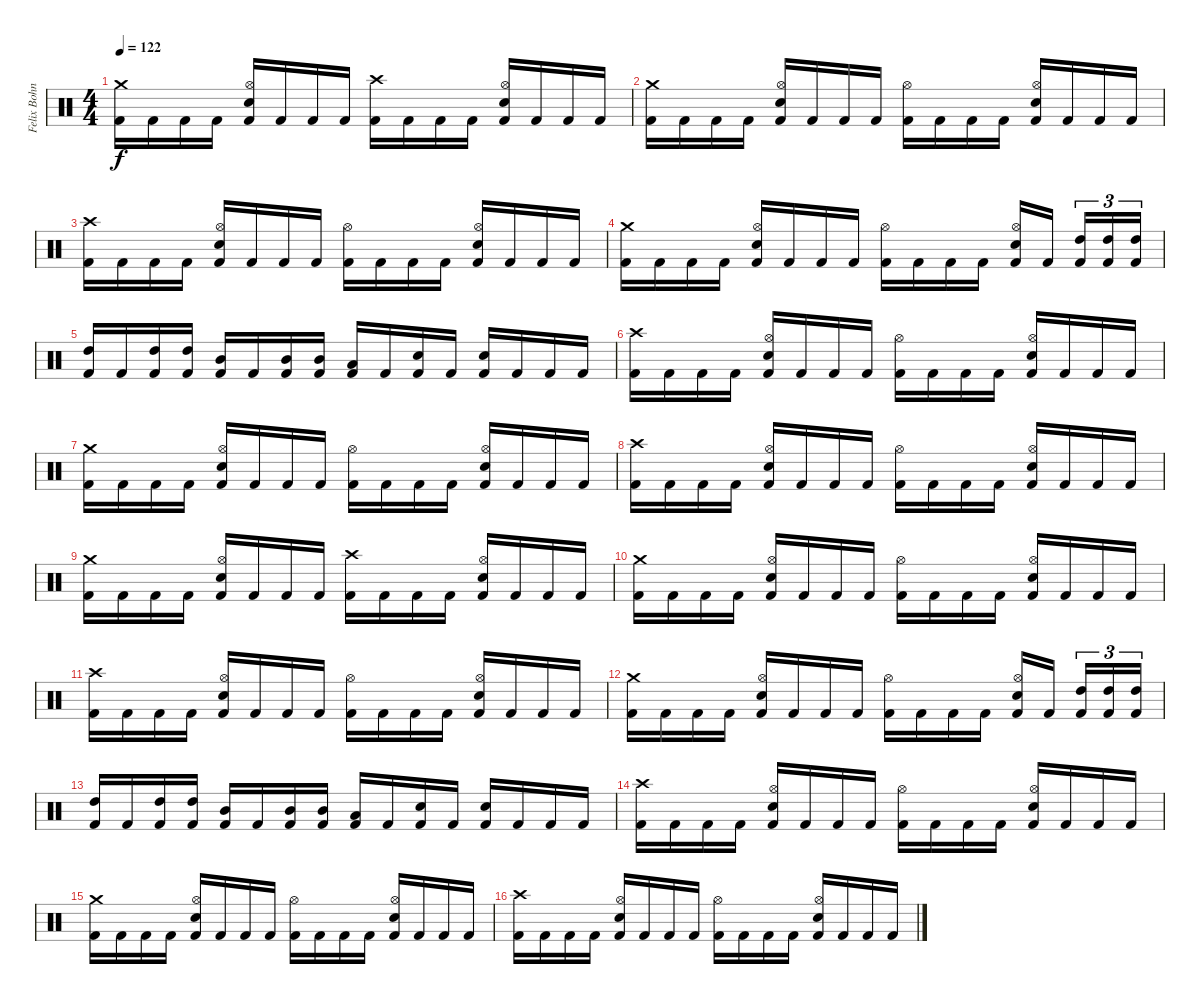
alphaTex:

\track ("Felix Bohnke" "Felix Bohn") {instrument percussion}
\staff {score}
\articulation defaults
\ts (4 4)
\tempo 122
\clef neutral
\ks c
("Crash medium (hit)" "Kick (hit) 2").16{dy f} "Kick (hit) 2".16 "Kick (hit) 2".16 "Kick (hit) 2".16 ("Hi-Hat (open)" "Snare (hit) 2" "Kick (hit) 2").16 "Kick (hit) 2".16 "Kick (hit) 2".16 "Kick (hit) 2".16 ("Crash high (hit)" "Kick (hit) 2").16 "Kick (hit) 2".16 "Kick (hit) 2".16 "Kick (hit) 2".16 ("Hi-Hat (open)" "Snare (hit) 2" "Kick (hit) 2").16 "Kick (hit) 2".16 "Kick (hit) 2".16 "Kick (hit) 2".16 |
("Crash medium (hit)" "Kick (hit) 2").16 "Kick (hit) 2".16 "Kick (hit) 2".16 "Kick (hit) 2".16 ("Hi-Hat (open)" "Snare (hit) 2" "Kick (hit) 2").16 "Kick (hit) 2".16 "Kick (hit) 2".16 "Kick (hit) 2".16 ("Hi-Hat (open)" "Kick (hit) 2").16 "Kick (hit) 2".16 "Kick (hit) 2".16 "Kick (hit) 2".16 ("Hi-Hat (open)" "Snare (hit) 2" "Kick (hit) 2").16 "Kick (hit) 2".16 "Kick (hit) 2".16 "Kick (hit) 2".16 |
("Crash high (hit)" "Kick (hit) 2").16 "Kick (hit) 2".16 "Kick (hit) 2".16 "Kick (hit) 2".16 ("Hi-Hat (open)" "Snare (hit) 2" "Kick (hit) 2").16 "Kick (hit) 2".16 "Kick (hit) 2".16 "Kick (hit) 2".16 ("Hi-Hat (open)" "Kick (hit) 2").16 "Kick (hit) 2".16 "Kick (hit) 2".16 "Kick (hit) 2".16 ("Hi-Hat (open)" "Snare (hit) 2" "Kick (hit) 2").16 "Kick (hit) 2".16 "Kick (hit) 2".16 "Kick (hit) 2".16 |
("Crash medium (hit)" "Kick (hit) 2").16 "Kick (hit) 2".16 "Kick (hit) 2".16 "Kick (hit) 2".16 ("Hi-Hat (open)" "Snare (hit) 2" "Kick (hit) 2").16 "Kick (hit) 2".16 "Kick (hit) 2".16 "Kick (hit) 2".16 ("Hi-Hat (open)" "Kick (hit) 2").16 "Kick (hit) 2".16 "Kick (hit) 2".16 "Kick (hit) 2".16 ("Hi-Hat (open)" "Snare (hit) 2" "Kick (hit) 2").16 "Kick (hit) 2".16 ("High Tom (hit)" "Kick (hit) 2").16{tu (3 2)} ("High Tom (hit)" "Kick (hit) 2").16{tu (3 2)} ("High Tom (hit)" "Kick (hit) 2").16{tu (3 2)} |
("High Tom (hit)" "Kick (hit) 2").16 "Kick (hit) 2".16 ("High Tom (hit)" "Kick (hit) 2").16 ("High Tom (hit)" "Kick (hit) 2").16 ("Mid Tom (hit)" "Kick (hit) 2").16 "Kick (hit) 2".16 ("Mid Tom (hit)" "Kick (hit) 2").16 ("Mid Tom (hit)" "Kick (hit) 2").16 ("Low Tom (hit)" "Kick (hit) 2").16 "Kick (hit) 2".16 ("Snare (hit) 2" "Kick (hit) 2").16 "Kick (hit) 2".16 ("Snare (hit) 2" "Kick (hit) 2").16 "Kick (hit) 2".16 "Kick (hit) 2".16 "Kick (hit) 2".16 |
("Crash high (hit)" "Kick (hit) 2").16 "Kick (hit) 2".16 "Kick (hit) 2".16 "Kick (hit) 2".16 ("Hi-Hat (open)" "Snare (hit) 2" "Kick (hit) 2").16 "Kick (hit) 2".16 "Kick (hit) 2".16 "Kick (hit) 2".16 ("Hi-Hat (open)" "Kick (hit) 2").16 "Kick (hit) 2".16 "Kick (hit) 2".16 "Kick (hit) 2".16 ("Hi-Hat (open)" "Snare (hit) 2" "Kick (hit) 2").16 "Kick (hit) 2".16 "Kick (hit) 2".16 "Kick (hit) 2".16 |
("Crash medium (hit)" "Kick (hit) 2").16 "Kick (hit) 2".16 "Kick (hit) 2".16 "Kick (hit) 2".16 ("Hi-Hat (open)" "Snare (hit) 2" "Kick (hit) 2").16 "Kick (hit) 2".16 "Kick (hit) 2".16 "Kick (hit) 2".16 ("Hi-Hat (open)" "Kick (hit) 2").16 "Kick (hit) 2".16 "Kick (hit) 2".16 "Kick (hit) 2".16 ("Hi-Hat (open)" "Snare (hit) 2" "Kick (hit) 2").16 "Kick (hit) 2".16 "Kick (hit) 2".16 "Kick (hit) 2".16 |
("Crash high (hit)" "Kick (hit) 2").16 "Kick (hit) 2".16 "Kick (hit) 2".16 "Kick (hit) 2".16 ("Hi-Hat (open)" "Snare (hit) 2" "Kick (hit) 2").16 "Kick (hit) 2".16 "Kick (hit) 2".16 "Kick (hit) 2".16 ("Hi-Hat (open)" "Kick (hit) 2").16 "Kick (hit) 2".16 "Kick (hit) 2".16 "Kick (hit) 2".16 ("Hi-Hat (open)" "Snare (hit) 2" "Kick (hit) 2").16 "Kick (hit) 2".16 "Kick (hit) 2".16 "Kick (hit) 2".16 |
("Crash medium (hit)" "Kick (hit) 2").16 "Kick (hit) 2".16 "Kick (hit) 2".16 "Kick (hit) 2".16 ("Hi-Hat (open)" "Snare (hit) 2" "Kick (hit) 2").16 "Kick (hit) 2".16 "Kick (hit) 2".16 "Kick (hit) 2".16 ("Crash high (hit)" "Kick (hit) 2").16 "Kick (hit) 2".16 "Kick (hit) 2".16 "Kick (hit) 2".16 ("Hi-Hat (open)" "Snare (hit) 2" "Kick (hit) 2").16 "Kick (hit) 2".16 "Kick (hit) 2".16 "Kick (hit) 2".16 |
("Crash medium (hit)" "Kick (hit) 2").16 "Kick (hit) 2".16 "Kick (hit) 2".16 "Kick (hit) 2".16 ("Hi-Hat (open)" "Snare (hit) 2" "Kick (hit) 2").16 "Kick (hit) 2".16 "Kick (hit) 2".16 "Kick (hit) 2".16 ("Hi-Hat (open)" "Kick (hit) 2").16 "Kick (hit) 2".16 "Kick (hit) 2".16 "Kick (hit) 2".16 ("Hi-Hat (open)" "Snare (hit) 2" "Kick (hit) 2").16 "Kick (hit) 2".16 "Kick (hit) 2".16 "Kick (hit) 2".16 |
("Crash high (hit)" "Kick (hit) 2").16 "Kick (hit) 2".16 "Kick (hit) 2".16 "Kick (hit) 2".16 ("Hi-Hat (open)" "Snare (hit) 2" "Kick (hit) 2").16 "Kick (hit) 2".16 "Kick (hit) 2".16 "Kick (hit) 2".16 ("Hi-Hat (open)" "Kick (hit) 2").16 "Kick (hit) 2".16 "Kick (hit) 2".16 "Kick (hit) 2".16 ("Hi-Hat (open)" "Snare (hit) 2" "Kick (hit) 2").16 "Kick (hit) 2".16 "Kick (hit) 2".16 "Kick (hit) 2".16 |
("Crash medium (hit)" "Kick (hit) 2").16 "Kick (hit) 2".16 "Kick (hit) 2".16 "Kick (hit) 2".16 ("Hi-Hat (open)" "Snare (hit) 2" "Kick (hit) 2").16 "Kick (hit) 2".16 "Kick (hit) 2".16 "Kick (hit) 2".16 ("Hi-Hat (open)" "Kick (hit) 2").16 "Kick (hit) 2".16 "Kick (hit) 2".16 "Kick (hit) 2".16 ("Hi-Hat (open)" "Snare (hit) 2" "Kick (hit) 2").16 "Kick (hit) 2".16 ("High Tom (hit)" "Kick (hit) 2").16{tu (3 2)} ("High Tom (hit)" "Kick (hit) 2").16{tu (3 2)} ("High Tom (hit)" "Kick (hit) 2").16{tu (3 2)} |
("High Tom (hit)" "Kick (hit) 2").16 "Kick (hit) 2".16 ("High Tom (hit)" "Kick (hit) 2").16 ("High Tom (hit)" "Kick (hit) 2").16 ("Mid Tom (hit)" "Kick (hit) 2").16 "Kick (hit) 2".16 ("Mid Tom (hit)" "Kick (hit) 2").16 ("Mid Tom (hit)" "Kick (hit) 2").16 ("Low Tom (hit)" "Kick (hit) 2").16 "Kick (hit) 2".16 ("Snare (hit) 2" "Kick (hit) 2").16 "Kick (hit) 2".16 ("Snare (hit) 2" "Kick (hit) 2").16 "Kick (hit) 2".16 "Kick (hit) 2".16 "Kick (hit) 2".16 |
("Crash high (hit)" "Kick (hit) 2").16 "Kick (hit) 2".16 "Kick (hit) 2".16 "Kick (hit) 2".16 ("Hi-Hat (open)" "Snare (hit) 2" "Kick (hit) 2").16 "Kick (hit) 2".16 "Kick (hit) 2".16 "Kick (hit) 2".16 ("Hi-Hat (open)" "Kick (hit) 2").16 "Kick (hit) 2".16 "Kick (hit) 2".16 "Kick (hit) 2".16 ("Hi-Hat (open)" "Snare (hit) 2" "Kick (hit) 2").16 "Kick (hit) 2".16 "Kick (hit) 2".16 "Kick (hit) 2".16 |
("Crash medium (hit)" "Kick (hit) 2").16 "Kick (hit) 2".16 "Kick (hit) 2".16 "Kick (hit) 2".16 ("Hi-Hat (open)" "Snare (hit) 2" "Kick (hit) 2").16 "Kick (hit) 2".16 "Kick (hit) 2".16 "Kick (hit) 2".16 ("Hi-Hat (open)" "Kick (hit) 2").16 "Kick (hit) 2".16 "Kick (hit) 2".16 "Kick (hit) 2".16 ("Hi-Hat (open)" "Snare (hit) 2" "Kick (hit) 2").16 "Kick (hit) 2".16 "Kick (hit) 2".16 "Kick (hit) 2".16 |
("Crash high (hit)" "Kick (hit) 2").16 "Kick (hit) 2".16 "Kick (hit) 2".16 "Kick (hit) 2".16 ("Hi-Hat (open)" "Snare (hit) 2" "Kick (hit) 2").16 "Kick (hit) 2".16 "Kick (hit) 2".16 "Kick (hit) 2".16 ("Hi-Hat (open)" "Kick (hit) 2").16 "Kick (hit) 2".16 "Kick (hit) 2".16 "Kick (hit) 2".16 ("Hi-Hat (open)" "Snare (hit) 2" "Kick (hit) 2").16 "Kick (hit) 2".16 "Kick (hit) 2".16 "Kick (hit) 2".16
